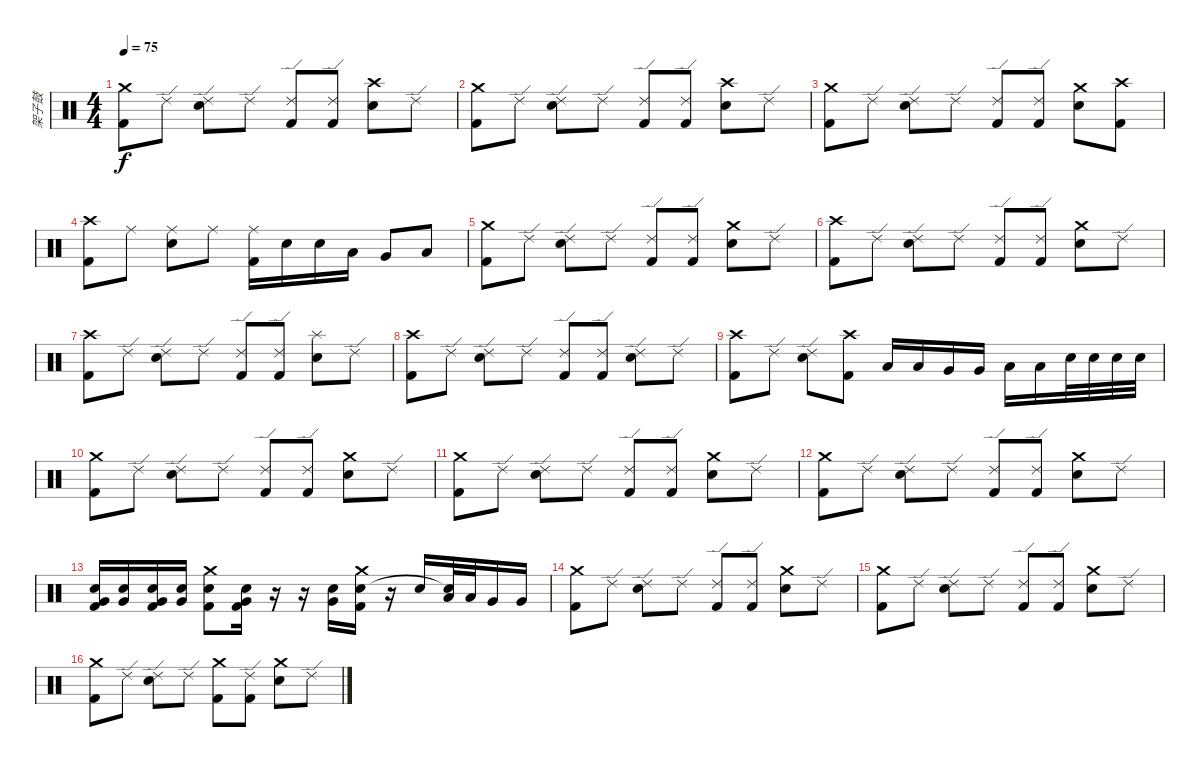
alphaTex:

\track ("架子鼓" "架子鼓") {instrument percussion}
\staff {score}
\articulation defaults
\ts (4 4)
\tempo 75
\clef neutral
\ks c
("Crash medium (hit)" "Kick (hit) 2").8{dy f} "Ride (edge) 2".8 ("Ride (edge) 2" "Electric Snare (hit)").8 "Ride (edge) 2".8 ("Ride (edge) 2" "Kick (hit) 2").8 ("Ride (edge) 2" "Kick (hit) 2").8 ("Crash high (hit)" "Electric Snare (hit)").8 "Ride (edge) 2".8 |
("Crash medium (hit)" "Kick (hit) 2").8 "Ride (edge) 2".8 ("Ride (edge) 2" "Electric Snare (hit)").8 "Ride (edge) 2".8 ("Ride (edge) 2" "Kick (hit) 2").8 ("Ride (edge) 2" "Kick (hit) 2").8 ("Crash high (hit)" "Electric Snare (hit)").8 "Ride (edge) 2".8 |
("Crash medium (hit)" "Kick (hit) 2").8 "Ride (edge) 2".8 ("Ride (edge) 2" "Electric Snare (hit)").8 "Ride (edge) 2".8 ("Ride (edge) 2" "Kick (hit) 2").8 ("Ride (edge) 2" "Kick (hit) 2").8 ("Crash medium (hit)" "Electric Snare (hit)").8 ("Crash high (hit)" "Kick (hit) 2").8 |
("Crash high (hit)" "Kick (hit) 2").8 "Ride (middle)".8 ("Ride (middle)" "Electric Snare (hit)").8 "Ride (middle)".8 ("Ride (middle)" "Kick (hit) 2").16 "Electric Snare (hit)".16 "Electric Snare (hit)".16 "Low Tom (hit)".16 "Very Low Tom (hit)".8 "Low Floor Tom (hit)".8 |
("Crash medium (hit)" "Kick (hit) 2").8 "Ride (edge) 2".8 ("Ride (edge) 2" "Electric Snare (hit)").8 "Ride (edge) 2".8 ("Ride (edge) 2" "Kick (hit) 2").8 ("Ride (edge) 2" "Kick (hit) 2").8 ("Crash medium (hit)" "Electric Snare (hit)").8 "Ride (edge) 2".8 |
("Crash high (hit)" "Kick (hit) 2").8 "Ride (edge) 2".8 ("Ride (edge) 2" "Electric Snare (hit)").8 "Ride (edge) 2".8 ("Ride (edge) 2" "Kick (hit) 2").8 ("Ride (edge) 2" "Kick (hit) 2").8 ("Crash medium (hit)" "Electric Snare (hit)").8 "Ride (edge) 2".8 |
("Crash high (hit)" "Kick (hit) 2").8 "Ride (edge) 2".8 ("Ride (edge) 2" "Electric Snare (hit)").8 "Ride (edge) 2".8 ("Ride (edge) 2" "Kick (hit) 2").8 ("Ride (edge) 2" "Kick (hit) 2").8 ("Splash (hit)" "Electric Snare (hit)").8 "Ride (edge) 2".8 |
("Crash high (hit)" "Kick (hit) 2").8 "Ride (edge) 2".8 ("Ride (edge) 2" "Electric Snare (hit)").8 "Ride (edge) 2".8 ("Ride (edge) 2" "Kick (hit) 2").8 ("Ride (edge) 2" "Kick (hit) 2").8 ("Ride (edge) 2" "Electric Snare (hit)").8 "Ride (edge) 2".8 |
("Crash high (hit)" "Kick (hit) 2").8 "Ride (edge) 2".8 ("Ride (edge) 2" "Electric Snare (hit)").8 ("Crash high (hit)" "Kick (hit) 2").8 "Low Tom (hit)".16 "Low Tom (hit)".16 "Very Low Tom (hit)".16 "Very Low Tom (hit)".16 "Low Floor Tom (hit)".16 "Low Floor Tom (hit)".16 "Electric Snare (hit)".32 "Electric Snare (hit)".32 "Electric Snare (hit)".32 "Electric Snare (hit)".32 |
("Crash medium (hit)" "Kick (hit) 2").8 "Ride (edge) 2".8 ("Ride (edge) 2" "Electric Snare (hit)").8 "Ride (edge) 2".8 ("Ride (edge) 2" "Kick (hit) 2").8 ("Ride (edge) 2" "Kick (hit) 2").8 ("Crash medium (hit)" "Electric Snare (hit)").8 "Ride (edge) 2".8 |
("Crash medium (hit)" "Kick (hit) 2").8 "Ride (edge) 2".8 ("Ride (edge) 2" "Electric Snare (hit)").8 "Ride (edge) 2".8 ("Ride (edge) 2" "Kick (hit) 2").8 ("Ride (edge) 2" "Kick (hit) 2").8 ("Crash medium (hit)" "Electric Snare (hit)").8 "Ride (edge) 2".8 |
("Crash medium (hit)" "Kick (hit) 2").8 "Ride (edge) 2".8 ("Ride (edge) 2" "Electric Snare (hit)").8 "Ride (edge) 2".8 ("Ride (edge) 2" "Kick (hit) 2").8 ("Ride (edge) 2" "Kick (hit) 2").8 ("Crash medium (hit)" "Electric Snare (hit)").8 "Ride (edge) 2".8 |
("Electric Snare (hit)" "Very Low Tom (hit)" "Kick (hit) 2").16 ("Electric Snare (hit)" "Very Low Tom (hit)").16 ("Electric Snare (hit)" "Very Low Tom (hit)" "Kick (hit) 2").16 ("Electric Snare (hit)" "Very Low Tom (hit)").16 ("Crash medium (hit)" "Electric Snare (hit)" "Kick (hit) 2").8 ("Electric Snare (hit)" "Very Low Tom (hit)" "Kick (hit) 2").16 r.16 r.16 ("Electric Snare (hit)" "Very Low Tom (hit)").16 ("Crash medium (hit)" "Electric Snare (hit)" "Kick (hit) 2").16 r.16 "Snare (hit) 2".16 ("Low Tom (hit)" "Snare (hit)"{t}).32 "Low Tom (hit)".32 "Very Low Tom (hit)".16 "Very Low Tom (hit)".16 |
("Crash medium (hit)" "Kick (hit) 2").8 "Ride (edge) 2".8 ("Ride (edge) 2" "Electric Snare (hit)").8 "Ride (edge) 2".8 ("Ride (edge) 2" "Kick (hit) 2").8 ("Ride (edge) 2" "Kick (hit) 2").8 ("Crash medium (hit)" "Electric Snare (hit)").8 "Ride (edge) 2".8 |
("Crash medium (hit)" "Kick (hit) 2").8 "Ride (edge) 2".8 ("Ride (edge) 2" "Electric Snare (hit)").8 "Ride (edge) 2".8 ("Ride (edge) 2" "Kick (hit) 2").8 ("Ride (edge) 2" "Kick (hit) 2").8 ("Crash medium (hit)" "Electric Snare (hit)").8 "Ride (edge) 2".8 |
("Crash medium (hit)" "Kick (hit) 2").8 "Ride (edge) 2".8 ("Ride (edge) 2" "Electric Snare (hit)").8 "Ride (edge) 2".8 ("Crash medium (hit)" "Kick (hit) 2").8 ("Ride (edge) 2" "Kick (hit) 2").8 ("Crash medium (hit)" "Electric Snare (hit)").8 "Ride (edge) 2".8
